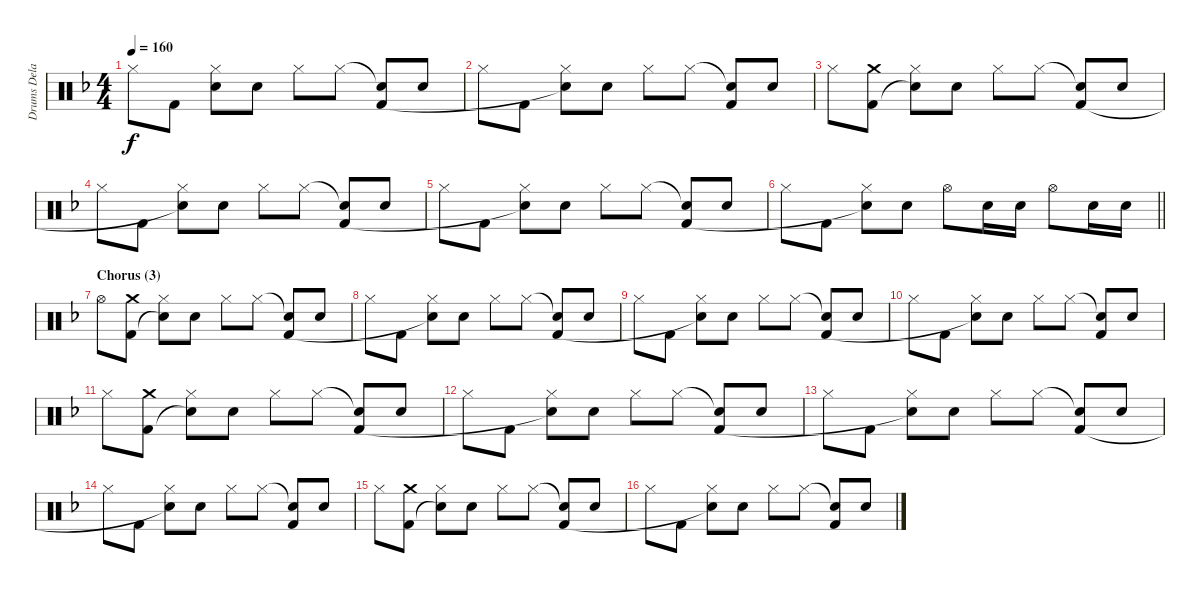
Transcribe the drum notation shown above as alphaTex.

\track ("Drums Delay" "Drums Dela") {instrument percussion}
\staff {score}
\articulation defaults
\ts (4 4)
\tempo 160
\clef neutral
\ks f "Hi-Hat (closed)".8{dy f} "Kick (hit) 2".8
("Hi-Hat (closed)" "Snare (hit)"{t}).8 "Electric Snare (hit)".8 "Hi-Hat (closed)".8 "Hi-Hat (closed)".8 ("Snare (hit)"{t} "Kick (hit) 2").8 "Electric Snare (hit)".8 |
"Hi-Hat (closed)".8 "Kick (hit) 2".8 ("Hi-Hat (closed)" "Snare (hit)"{t}).8 "Electric Snare (hit)".8 "Hi-Hat (closed)".8 "Hi-Hat (closed)".8 ("Snare (hit)"{t} "Kick (hit) 2").8 "Electric Snare (hit)".8 |
"Hi-Hat (closed)".8 ("Crash medium (hit)" "Kick (hit) 2").8 ("Hi-Hat (closed)" "Snare (hit)"{t}).8 "Electric Snare (hit)".8 "Hi-Hat (closed)".8 "Hi-Hat (closed)".8 ("Snare (hit)"{t} "Kick (hit) 2").8 "Electric Snare (hit)".8 |
"Hi-Hat (closed)".8 "Kick (hit) 2".8 ("Hi-Hat (closed)" "Snare (hit)"{t}).8 "Electric Snare (hit)".8 "Hi-Hat (closed)".8 "Hi-Hat (closed)".8 ("Snare (hit)"{t} "Kick (hit) 2").8 "Electric Snare (hit)".8 |
"Hi-Hat (closed)".8 "Kick (hit) 2".8 ("Hi-Hat (closed)" "Snare (hit)"{t}).8 "Electric Snare (hit)".8 "Hi-Hat (closed)".8 "Hi-Hat (closed)".8 ("Snare (hit)"{t} "Kick (hit) 2").8 "Electric Snare (hit)".8 |
\barLineRight lightlight "Hi-Hat (closed)".8 "Kick (hit) 2".8
("Hi-Hat (closed)" "Snare (hit)"{t}).8 "Electric Snare (hit)".8 "Hi-Hat (open)".8 "Electric Snare (hit)".16 "Electric Snare (hit)".16 "Hi-Hat (open)".8 "Electric Snare (hit)".16 "Electric Snare (hit)".16 |
\section ("" "Chorus (3)")
"Hi-Hat (open)".8 ("Crash medium (hit)" "Kick (hit) 2").8 ("Hi-Hat (closed)" "Snare (hit)"{t}).8 "Electric Snare (hit)".8 "Hi-Hat (closed)".8 "Hi-Hat (closed)".8 ("Snare (hit)"{t} "Kick (hit) 2").8 "Electric Snare (hit)".8 |
"Hi-Hat (closed)".8 "Kick (hit) 2".8 ("Hi-Hat (closed)" "Snare (hit)"{t}).8 "Electric Snare (hit)".8 "Hi-Hat (closed)".8 "Hi-Hat (closed)".8 ("Snare (hit)"{t} "Kick (hit) 2").8 "Electric Snare (hit)".8 |
"Hi-Hat (closed)".8 "Kick (hit) 2".8 ("Hi-Hat (closed)" "Snare (hit)"{t}).8 "Electric Snare (hit)".8 "Hi-Hat (closed)".8 "Hi-Hat (closed)".8 ("Snare (hit)"{t} "Kick (hit) 2").8 "Electric Snare (hit)".8 |
"Hi-Hat (closed)".8 "Kick (hit) 2".8 ("Hi-Hat (closed)" "Snare (hit)"{t}).8 "Electric Snare (hit)".8 "Hi-Hat (closed)".8 "Hi-Hat (closed)".8 ("Snare (hit)"{t} "Kick (hit) 2").8 "Electric Snare (hit)".8 |
"Hi-Hat (closed)".8 ("Crash medium (hit)" "Kick (hit) 2").8 ("Hi-Hat (closed)" "Snare (hit)"{t}).8 "Electric Snare (hit)".8 "Hi-Hat (closed)".8 "Hi-Hat (closed)".8 ("Snare (hit)"{t} "Kick (hit) 2").8 "Electric Snare (hit)".8 |
"Hi-Hat (closed)".8 "Kick (hit) 2".8 ("Hi-Hat (closed)" "Snare (hit)"{t}).8 "Electric Snare (hit)".8 "Hi-Hat (closed)".8 "Hi-Hat (closed)".8 ("Snare (hit)"{t} "Kick (hit) 2").8 "Electric Snare (hit)".8 |
"Hi-Hat (closed)".8 "Kick (hit) 2".8 ("Hi-Hat (closed)" "Snare (hit)"{t}).8 "Electric Snare (hit)".8 "Hi-Hat (closed)".8 "Hi-Hat (closed)".8 ("Snare (hit)"{t} "Kick (hit) 2").8 "Electric Snare (hit)".8 |
"Hi-Hat (closed)".8 "Kick (hit) 2".8 ("Hi-Hat (closed)" "Snare (hit)"{t}).8 "Electric Snare (hit)".8 "Hi-Hat (closed)".8 "Hi-Hat (closed)".8 ("Snare (hit)"{t} "Kick (hit) 2").8 "Electric Snare (hit)".8 |
"Hi-Hat (closed)".8 ("Crash medium (hit)" "Kick (hit) 2").8 ("Hi-Hat (closed)" "Snare (hit)"{t}).8 "Electric Snare (hit)".8 "Hi-Hat (closed)".8 "Hi-Hat (closed)".8 ("Snare (hit)"{t} "Kick (hit) 2").8 "Electric Snare (hit)".8 |
"Hi-Hat (closed)".8 "Kick (hit) 2".8 ("Hi-Hat (closed)" "Snare (hit)"{t}).8 "Electric Snare (hit)".8 "Hi-Hat (closed)".8 "Hi-Hat (closed)".8 ("Snare (hit)"{t} "Kick (hit) 2").8 "Electric Snare (hit)".8
